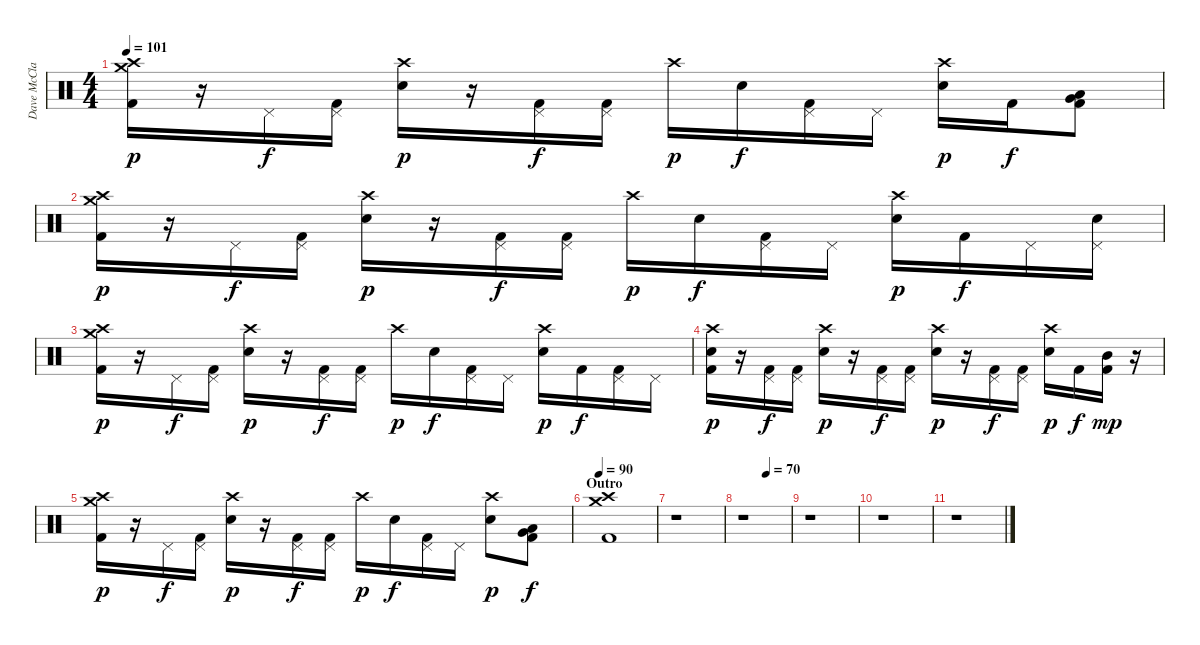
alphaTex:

\track ("Dave McClain" "Dave McCla") {instrument percussion}
\staff {score}
\articulation defaults
\ts (4 4)
\tempo 101
\clef neutral
\ks c
("Crash medium (hit)" "Crash high (hit)" "Kick (hit) 2").16{dy p} r.16 "Pedal Hi-Hat (hit)".16{dy f} ("Pedal Hi-Hat (hit)" "Kick (hit) 2").16 ("Crash high (hit)" "Electric Snare (hit)").16{dy p} r.16 ("Pedal Hi-Hat (hit)" "Kick (hit) 2").16{dy f} ("Pedal Hi-Hat (hit)" "Kick (hit) 2").16 "Crash high (hit)".16{dy p} "Electric Snare (hit)".16{dy f} ("Pedal Hi-Hat (hit)" "Kick (hit) 2").16 "Pedal Hi-Hat (hit)".16 ("Crash high (hit)" "Electric Snare (hit)").16{dy p} "Kick (hit) 2".16{dy f} ("Very Low Tom (hit)" "Low Tom (hit)" "Kick (hit) 2").8 |
("Crash medium (hit)" "Crash high (hit)" "Kick (hit) 2").16{dy p} r.16 "Pedal Hi-Hat (hit)".16{dy f} ("Pedal Hi-Hat (hit)" "Kick (hit) 2").16 ("Crash high (hit)" "Electric Snare (hit)").16{dy p} r.16 ("Pedal Hi-Hat (hit)" "Kick (hit) 2").16{dy f} ("Pedal Hi-Hat (hit)" "Kick (hit) 2").16 "Crash high (hit)".16{dy p} "Electric Snare (hit)".16{dy f} ("Pedal Hi-Hat (hit)" "Kick (hit) 2").16 "Pedal Hi-Hat (hit)".16 ("Crash high (hit)" "Electric Snare (hit)").16{dy p} "Kick (hit) 2".16{dy f} "Pedal Hi-Hat (hit)".16 ("Pedal Hi-Hat (hit)" "Electric Snare (hit)").16 |
("Crash medium (hit)" "Crash high (hit)" "Kick (hit) 2").16{dy p} r.16 "Pedal Hi-Hat (hit)".16{dy f} ("Pedal Hi-Hat (hit)" "Kick (hit) 2").16 ("Crash high (hit)" "Electric Snare (hit)").16{dy p} r.16 ("Pedal Hi-Hat (hit)" "Kick (hit) 2").16{dy f} ("Pedal Hi-Hat (hit)" "Kick (hit) 2").16 "Crash high (hit)".16{dy p} "Electric Snare (hit)".16{dy f} ("Pedal Hi-Hat (hit)" "Kick (hit) 2").16 "Pedal Hi-Hat (hit)".16 ("Crash high (hit)" "Electric Snare (hit)").16{dy p} "Kick (hit) 2".16{dy f} ("Pedal Hi-Hat (hit)" "Kick (hit) 2").16 "Pedal Hi-Hat (hit)".16 |
("Crash high (hit)" "Electric Snare (hit)" "Kick (hit) 2").16{dy p} r.16 ("Pedal Hi-Hat (hit)" "Kick (hit) 2").16{dy f} ("Pedal Hi-Hat (hit)" "Kick (hit) 2").16 ("Crash high (hit)" "Electric Snare (hit)").16{dy p} r.16 ("Pedal Hi-Hat (hit)" "Kick (hit) 2").16{dy f} ("Pedal Hi-Hat (hit)" "Kick (hit) 2").16 ("Crash high (hit)" "Electric Snare (hit)").16{dy p} r.16 ("Pedal Hi-Hat (hit)" "Kick (hit) 2").16{dy f} ("Pedal Hi-Hat (hit)" "Kick (hit) 2").16 ("Crash high (hit)" "Electric Snare (hit)").16{dy p} "Kick (hit) 2".16{dy f} ("Mid Tom (hit)" "Kick (hit) 2").16{dy mp} r.16 |
("Crash medium (hit)" "Crash high (hit)" "Kick (hit) 2").16{dy p} r.16 "Pedal Hi-Hat (hit)".16{dy f} ("Pedal Hi-Hat (hit)" "Kick (hit) 2").16 ("Crash high (hit)" "Electric Snare (hit)").16{dy p} r.16 ("Pedal Hi-Hat (hit)" "Kick (hit) 2").16{dy f} ("Pedal Hi-Hat (hit)" "Kick (hit) 2").16 "Crash high (hit)".16{dy p} "Electric Snare (hit)".16{dy f} ("Pedal Hi-Hat (hit)" "Kick (hit) 2").16 "Pedal Hi-Hat (hit)".16 ("Crash high (hit)" "Electric Snare (hit)").8{dy p} ("Very Low Tom (hit)" "Low Tom (hit)" "Kick (hit) 2").8{dy f} |
\section ("" "Outro")
\tempo 90
("Crash medium (hit)" "Crash high (hit)" "Kick (hit) 2").1 |
r.1 |
\tempo (70 0.5)
r.1 |
r.1 |
r.1 |
r.1
